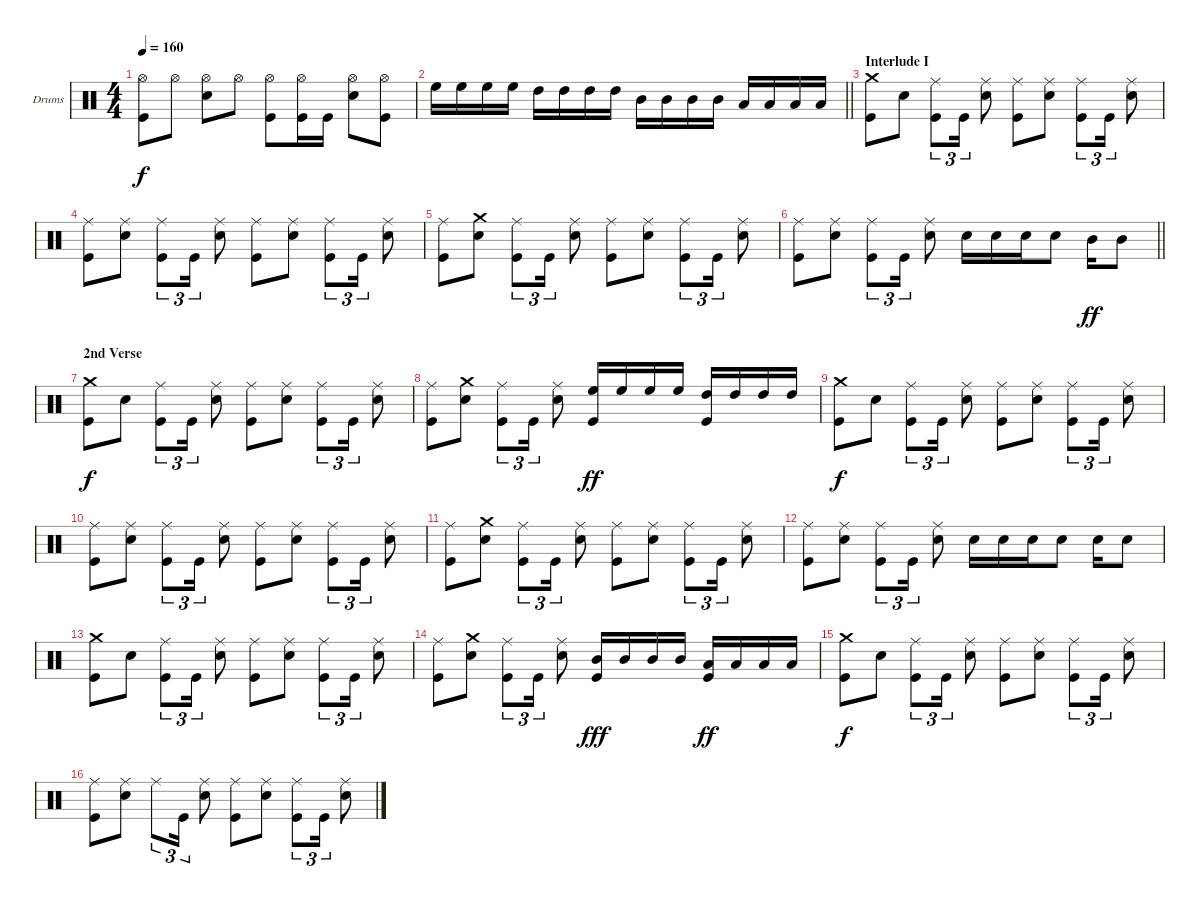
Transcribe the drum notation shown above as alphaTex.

\bracketExtendMode groupsimilarinstruments
\firstSystemTrackNameOrientation horizontal
\otherSystemsTrackNameOrientation horizontal
\track ("Drums" "Drums") {instrument percussion}
\staff {score}
\articulation defaults
\ts (4 4)
\tempo 160
\clef neutral
\ks c
("Hi-Hat (open)" "Kick (hit)").8{dy f} "Hi-Hat (open)".8 ("Hi-Hat (open)" "Snare (hit) 2").8 "Hi-Hat (open)".8 ("Hi-Hat (open)" "Kick (hit)").8 ("Hi-Hat (open)" "Kick (hit)").16 "Kick (hit)".16 ("Hi-Hat (open)" "Snare (hit) 2").8 ("Hi-Hat (open)" "Kick (hit)").8 |
\barLineRight lightlight "High Floor Tom (hit)".16 "High Floor Tom (hit)".16 "High Floor Tom (hit)".16 "High Floor Tom (hit)".16 "High Tom (hit)".16 "High Tom (hit)".16 "High Tom (hit)".16 "High Tom (hit)".16 "Mid Tom (hit)".16 "Mid Tom (hit)".16 "Mid Tom (hit)".16 "Mid Tom (hit)".16 "Low Tom (hit)".16 "Low Tom (hit)".16 "Low Tom (hit)".16 "Low Tom (hit)".16
|
\section ("" "Interlude I")
("Kick (hit)" "Crash medium (hit)").8 "Snare (hit) 2".8 ("Kick (hit)" "Ride (middle)").8{tu (3 2)} "Kick (hit)".16{tu (3 2)} ("Ride (middle)" "Snare (hit) 2").8 ("Ride (middle)" "Kick (hit)").8 ("Ride (middle)" "Snare (hit) 2").8 ("Ride (middle)" "Kick (hit)").8{tu (3 2)} "Kick (hit)".16{tu (3 2)} ("Ride (middle)" "Snare (hit) 2").8 |
("Ride (middle)" "Kick (hit)").8 ("Ride (middle)" "Snare (hit) 2").8 ("Kick (hit)" "Ride (middle)").8{tu (3 2)} "Kick (hit)".16{tu (3 2)} ("Ride (middle)" "Snare (hit) 2").8 ("Ride (middle)" "Kick (hit)").8 ("Ride (middle)" "Snare (hit) 2").8 ("Kick (hit)" "Ride (middle)").8{tu (3 2)} "Kick (hit)".16{tu (3 2)} ("Ride (middle)" "Snare (hit) 2").8 |
("Ride (middle)" "Kick (hit)").8 ("Crash medium (hit)" "Snare (hit) 2").8 ("Kick (hit)" "Ride (middle)").8{tu (3 2)} "Kick (hit)".16{tu (3 2)} ("Ride (middle)" "Snare (hit) 2").8 ("Ride (middle)" "Kick (hit)").8 ("Ride (middle)" "Snare (hit) 2").8 ("Kick (hit)" "Ride (middle)").8{tu (3 2)} "Kick (hit)".16{tu (3 2)} ("Ride (middle)" "Snare (hit) 2").8 |
\barLineRight lightlight
("Ride (middle)" "Kick (hit)").8 ("Ride (middle)" "Snare (hit) 2").8 ("Kick (hit)" "Ride (middle)").8{tu (3 2)} "Kick (hit)".16{tu (3 2)} ("Ride (middle)" "Snare (hit) 2").8 "Snare (hit) 2".16 "Snare (hit) 2".16 "Snare (hit) 2".16 "Snare (hit) 2".8 "Mid Tom (hit)".16{dy ff} "Mid Tom (hit)".8 |
\section ("" "2nd Verse")
("Crash medium (hit)" "Kick (hit)").8{dy f} "Snare (hit) 2".8 ("Kick (hit)" "Ride (middle)").8{tu (3 2)} "Kick (hit)".16{tu (3 2)} ("Ride (middle)" "Snare (hit) 2").8 ("Ride (middle)" "Kick (hit)").8 ("Ride (middle)" "Snare (hit) 2").8 ("Kick (hit)" "Ride (middle)").8{tu (3 2)} "Kick (hit)".16{tu (3 2)} ("Ride (middle)" "Snare (hit) 2").8 |
("Ride (middle)" "Kick (hit)").8 ("Crash medium (hit)" "Snare (hit) 2").8 ("Kick (hit)" "Ride (middle)").8{tu (3 2)} "Kick (hit)".16{tu (3 2)} ("Ride (middle)" "Snare (hit) 2").8 ("Kick (hit)" "High Floor Tom (hit)").16{dy ff} "High Floor Tom (hit)".16 "High Floor Tom (hit)".16 "High Floor Tom (hit)".16 ("Kick (hit)" "High Tom (hit)").16 "High Tom (hit)".16 "High Tom (hit)".16 "High Tom (hit)".16 |
("Crash medium (hit)" "Kick (hit)").8{dy f} "Snare (hit) 2".8 ("Kick (hit)" "Ride (middle)").8{tu (3 2)} "Kick (hit)".16{tu (3 2)} ("Ride (middle)" "Snare (hit) 2").8 ("Ride (middle)" "Kick (hit)").8 ("Ride (middle)" "Snare (hit) 2").8 ("Kick (hit)" "Ride (middle)").8{tu (3 2)} "Kick (hit)".16{tu (3 2)} ("Ride (middle)" "Snare (hit) 2").8 |
("Ride (middle)" "Kick (hit)").8 ("Ride (middle)" "Snare (hit) 2").8 ("Kick (hit)" "Ride (middle)").8{tu (3 2)} "Kick (hit)".16{tu (3 2)} ("Ride (middle)" "Snare (hit) 2").8 ("Ride (middle)" "Kick (hit)").8 ("Ride (middle)" "Snare (hit) 2").8 ("Kick (hit)" "Ride (middle)").8{tu (3 2)} "Kick (hit)".16{tu (3 2)} ("Ride (middle)" "Snare (hit) 2").8 |
("Ride (middle)" "Kick (hit)").8 ("Crash medium (hit)" "Snare (hit) 2").8 ("Kick (hit)" "Ride (middle)").8{tu (3 2)} "Kick (hit)".16{tu (3 2)} ("Ride (middle)" "Snare (hit) 2").8 ("Ride (middle)" "Kick (hit)").8 ("Ride (middle)" "Snare (hit) 2").8 ("Kick (hit)" "Ride (middle)").8{tu (3 2)} "Kick (hit)".16{tu (3 2)} ("Ride (middle)" "Snare (hit) 2").8 |
("Ride (middle)" "Kick (hit)").8 ("Ride (middle)" "Snare (hit) 2").8 ("Kick (hit)" "Ride (middle)").8{tu (3 2)} "Kick (hit)".16{tu (3 2)} ("Ride (middle)" "Snare (hit) 2").8 "Snare (hit) 2".16 "Snare (hit) 2".16 "Snare (hit) 2".16 "Snare (hit) 2".8 "Snare (hit) 2".16 "Snare (hit) 2".8 |
("Kick (hit)" "Crash medium (hit)").8 "Snare (hit) 2".8 ("Kick (hit)" "Ride (middle)").8{tu (3 2)} "Kick (hit)".16{tu (3 2)} ("Ride (middle)" "Snare (hit) 2").8 ("Ride (middle)" "Kick (hit)").8 ("Ride (middle)" "Snare (hit) 2").8 ("Kick (hit)" "Ride (middle)").8{tu (3 2)} "Kick (hit)".16{tu (3 2)} ("Ride (middle)" "Snare (hit) 2").8 |
("Ride (middle)" "Kick (hit)").8 ("Crash medium (hit)" "Snare (hit) 2").8 ("Kick (hit)" "Ride (middle)").8{tu (3 2)} "Kick (hit)".16{tu (3 2)} ("Ride (middle)" "Snare (hit) 2").8 ("Kick (hit)" "Mid Tom (hit)").16{dy fff} "Mid Tom (hit)".16 "Mid Tom (hit)".16 "Mid Tom (hit)".16 ("Low Tom (hit)" "Kick (hit)").16{dy ff} "Low Tom (hit)".16 "Low Tom (hit)".16 "Low Tom (hit)".16 |
("Crash medium (hit)" "Kick (hit)").8{dy f} "Snare (hit) 2".8 ("Kick (hit)" "Ride (middle)").8{tu (3 2)} "Kick (hit)".16{tu (3 2)} ("Ride (middle)" "Snare (hit) 2").8 ("Ride (middle)" "Kick (hit)").8 ("Ride (middle)" "Snare (hit) 2").8 ("Kick (hit)" "Ride (middle)").8{tu (3 2)} "Kick (hit)".16{tu (3 2)} ("Ride (middle)" "Snare (hit) 2").8 |
("Ride (middle)" "Kick (hit)").8 ("Ride (middle)" "Snare (hit) 2").8 "Ride (middle)".8{tu (3 2)} "Kick (hit)".16{tu (3 2)} ("Ride (middle)" "Snare (hit) 2").8 ("Ride (middle)" "Kick (hit)").8 ("Ride (middle)" "Snare (hit) 2").8 ("Kick (hit)" "Ride (middle)").8{tu (3 2)} "Kick (hit)".16{tu (3 2)} ("Ride (middle)" "Snare (hit) 2").8
